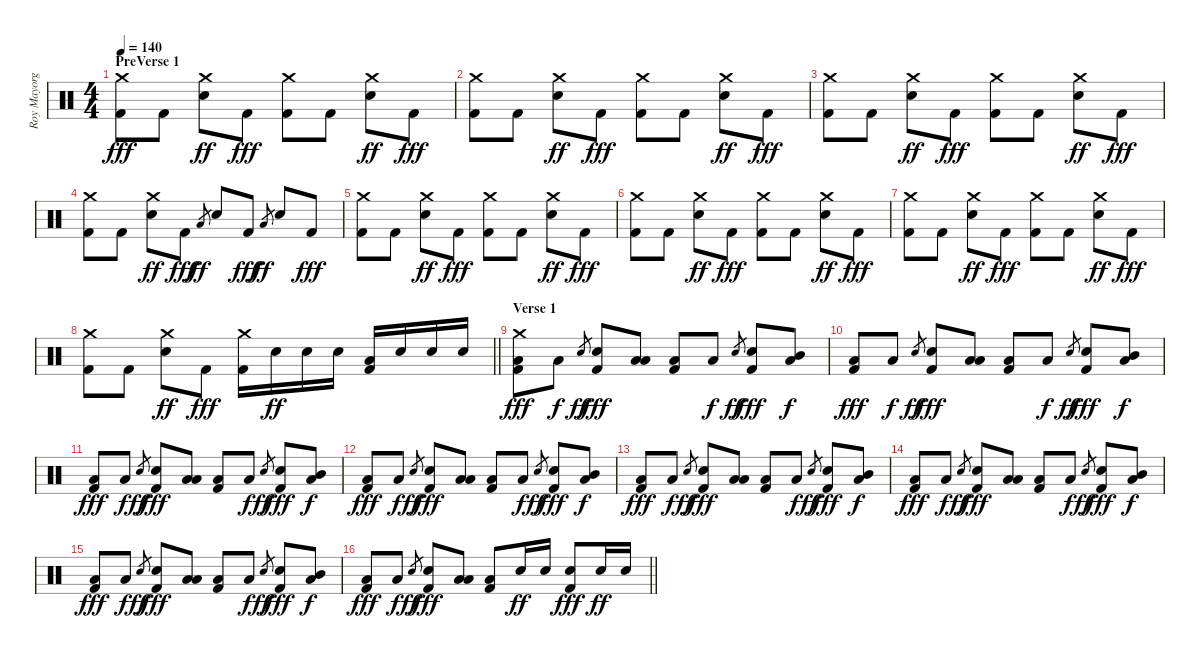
\track ("Roy Mayorga" "Roy Mayorg") {instrument percussion}
\staff {score}
\articulation defaults
\ts (4 4)
\section ("" "PreVerse 1")
\tempo 140
\clef neutral
\ks c
("Crash medium (hit)" "Kick (hit) 2").8{dy fff} "Kick (hit) 2".8 ("Crash medium (hit)" "Electric Snare (hit)").8{dy ff} "Kick (hit) 2".8{dy fff} ("Crash medium (hit)" "Kick (hit) 2").8 "Kick (hit) 2".8 ("Crash medium (hit)" "Electric Snare (hit)").8{dy ff} "Kick (hit) 2".8{dy fff} |
("Crash medium (hit)" "Kick (hit) 2").8 "Kick (hit) 2".8 ("Crash medium (hit)" "Electric Snare (hit)").8{dy ff} "Kick (hit) 2".8{dy fff} ("Crash medium (hit)" "Kick (hit) 2").8 "Kick (hit) 2".8 ("Crash medium (hit)" "Electric Snare (hit)").8{dy ff} "Kick (hit) 2".8{dy fff} |
("Crash medium (hit)" "Kick (hit) 2").8 "Kick (hit) 2".8 ("Crash medium (hit)" "Electric Snare (hit)").8{dy ff} "Kick (hit) 2".8{dy fff} ("Crash medium (hit)" "Kick (hit) 2").8 "Kick (hit) 2".8 ("Crash medium (hit)" "Electric Snare (hit)").8{dy ff} "Kick (hit) 2".8{dy fff} |
("Crash medium (hit)" "Kick (hit) 2").8 "Kick (hit) 2".8 ("Crash medium (hit)" "Electric Snare (hit)").8{dy ff} "Kick (hit) 2".8{dy fff} "Low Floor Tom (hit)".8{gr dy ff} "Electric Snare (hit)".8 "Kick (hit) 2".8{dy fff} "Low Floor Tom (hit)".8{gr dy ff} "Electric Snare (hit)".8 "Kick (hit) 2".8{dy fff} |
("Crash medium (hit)" "Kick (hit) 2").8 "Kick (hit) 2".8 ("Crash medium (hit)" "Electric Snare (hit)").8{dy ff} "Kick (hit) 2".8{dy fff} ("Crash medium (hit)" "Kick (hit) 2").8 "Kick (hit) 2".8 ("Crash medium (hit)" "Electric Snare (hit)").8{dy ff} "Kick (hit) 2".8{dy fff} |
("Crash medium (hit)" "Kick (hit) 2").8 "Kick (hit) 2".8 ("Crash medium (hit)" "Electric Snare (hit)").8{dy ff} "Kick (hit) 2".8{dy fff} ("Crash medium (hit)" "Kick (hit) 2").8 "Kick (hit) 2".8 ("Crash medium (hit)" "Electric Snare (hit)").8{dy ff} "Kick (hit) 2".8{dy fff} |
("Crash medium (hit)" "Kick (hit) 2").8 "Kick (hit) 2".8 ("Crash medium (hit)" "Electric Snare (hit)").8{dy ff} "Kick (hit) 2".8{dy fff} ("Crash medium (hit)" "Kick (hit) 2").8 "Kick (hit) 2".8 ("Crash medium (hit)" "Electric Snare (hit)").8{dy ff} "Kick (hit) 2".8{dy fff} |
\barLineRight lightlight
("Crash medium (hit)" "Kick (hit) 2").8 "Kick (hit) 2".8 ("Crash medium (hit)" "Electric Snare (hit)").8{dy ff} "Kick (hit) 2".8{dy fff} ("Crash medium (hit)" "Kick (hit) 2").16 "Electric Snare (hit)".16{dy ff} "Electric Snare (hit)".16 "Electric Snare (hit)".16 ("Low Tom (hit)" "Kick (hit) 2").16 "Electric Snare (hit)".16 "Electric Snare (hit)".16 "Electric Snare (hit)".16 |
\section ("" "Verse 1")
("Crash medium (hit)" "Low Floor Tom (hit)" "Kick (hit) 2").8{dy fff} "Low Floor Tom (hit)".8{dy f} "Electric Snare (hit)".8{gr dy ff} ("Electric Snare (hit)" "Kick (hit) 2").8{dy fff} ("Low Tom (hit)" "Low Floor Tom (hit)").8 ("Low Floor Tom (hit)" "Kick (hit) 2").8 "Low Floor Tom (hit)".8{dy f} "Electric Snare (hit)".8{gr dy ff} ("Electric Snare (hit)" "Kick (hit) 2").8{dy fff} ("Mid Tom (hit)" "Low Floor Tom (hit)").8{dy f} |
("Low Floor Tom (hit)" "Kick (hit) 2").8{dy fff} "Low Floor Tom (hit)".8{dy f} "Electric Snare (hit)".8{gr dy ff} ("Electric Snare (hit)" "Kick (hit) 2").8{dy fff} ("Low Tom (hit)" "Low Floor Tom (hit)").8 ("Low Floor Tom (hit)" "Kick (hit) 2").8 "Low Floor Tom (hit)".8{dy f} "Electric Snare (hit)".8{gr dy ff} ("Electric Snare (hit)" "Kick (hit) 2").8{dy fff} ("Mid Tom (hit)" "Low Floor Tom (hit)").8{dy f} |
("Low Floor Tom (hit)" "Kick (hit) 2").8{dy fff} "Low Floor Tom (hit)".8{dy f} "Electric Snare (hit)".8{gr dy ff} ("Electric Snare (hit)" "Kick (hit) 2").8{dy fff} ("Low Tom (hit)" "Low Floor Tom (hit)").8 ("Low Floor Tom (hit)" "Kick (hit) 2").8 "Low Floor Tom (hit)".8{dy f} "Electric Snare (hit)".8{gr dy ff} ("Electric Snare (hit)" "Kick (hit) 2").8{dy fff} ("Mid Tom (hit)" "Low Floor Tom (hit)").8{dy f} |
("Low Floor Tom (hit)" "Kick (hit) 2").8{dy fff} "Low Floor Tom (hit)".8{dy f} "Electric Snare (hit)".8{gr dy ff} ("Electric Snare (hit)" "Kick (hit) 2").8{dy fff} ("Low Tom (hit)" "Low Floor Tom (hit)").8 ("Low Floor Tom (hit)" "Kick (hit) 2").8 "Low Floor Tom (hit)".8{dy f} "Electric Snare (hit)".8{gr dy ff} ("Electric Snare (hit)" "Kick (hit) 2").8{dy fff} ("Mid Tom (hit)" "Low Floor Tom (hit)").8{dy f} |
("Low Floor Tom (hit)" "Kick (hit) 2").8{dy fff} "Low Floor Tom (hit)".8{dy f} "Electric Snare (hit)".8{gr dy ff} ("Electric Snare (hit)" "Kick (hit) 2").8{dy fff} ("Low Tom (hit)" "Low Floor Tom (hit)").8 ("Low Floor Tom (hit)" "Kick (hit) 2").8 "Low Floor Tom (hit)".8{dy f} "Electric Snare (hit)".8{gr dy ff} ("Electric Snare (hit)" "Kick (hit) 2").8{dy fff} ("Mid Tom (hit)" "Low Floor Tom (hit)").8{dy f} |
("Low Floor Tom (hit)" "Kick (hit) 2").8{dy fff} "Low Floor Tom (hit)".8{dy f} "Electric Snare (hit)".8{gr dy ff} ("Electric Snare (hit)" "Kick (hit) 2").8{dy fff} ("Low Tom (hit)" "Low Floor Tom (hit)").8 ("Low Floor Tom (hit)" "Kick (hit) 2").8 "Low Floor Tom (hit)".8{dy f} "Electric Snare (hit)".8{gr dy ff} ("Electric Snare (hit)" "Kick (hit) 2").8{dy fff} ("Mid Tom (hit)" "Low Floor Tom (hit)").8{dy f} |
("Low Floor Tom (hit)" "Kick (hit) 2").8{dy fff} "Low Floor Tom (hit)".8{dy f} "Electric Snare (hit)".8{gr dy ff} ("Electric Snare (hit)" "Kick (hit) 2").8{dy fff} ("Low Tom (hit)" "Low Floor Tom (hit)").8 ("Low Floor Tom (hit)" "Kick (hit) 2").8 "Low Floor Tom (hit)".8{dy f} "Electric Snare (hit)".8{gr dy ff} ("Electric Snare (hit)" "Kick (hit) 2").8{dy fff} ("Mid Tom (hit)" "Low Floor Tom (hit)").8{dy f} |
\barLineRight lightlight
("Low Floor Tom (hit)" "Kick (hit) 2").8{dy fff} "Low Floor Tom (hit)".8{dy f} "Electric Snare (hit)".8{gr dy ff} ("Electric Snare (hit)" "Kick (hit) 2").8{dy fff} ("Low Tom (hit)" "Low Floor Tom (hit)").8 ("Low Floor Tom (hit)" "Kick (hit) 2").8 "Electric Snare (hit)".16{dy ff} "Electric Snare (hit)".16 ("Electric Snare (hit)" "Kick (hit) 2").8{dy fff} "Electric Snare (hit)".16{dy ff} "Electric Snare (hit)".16
